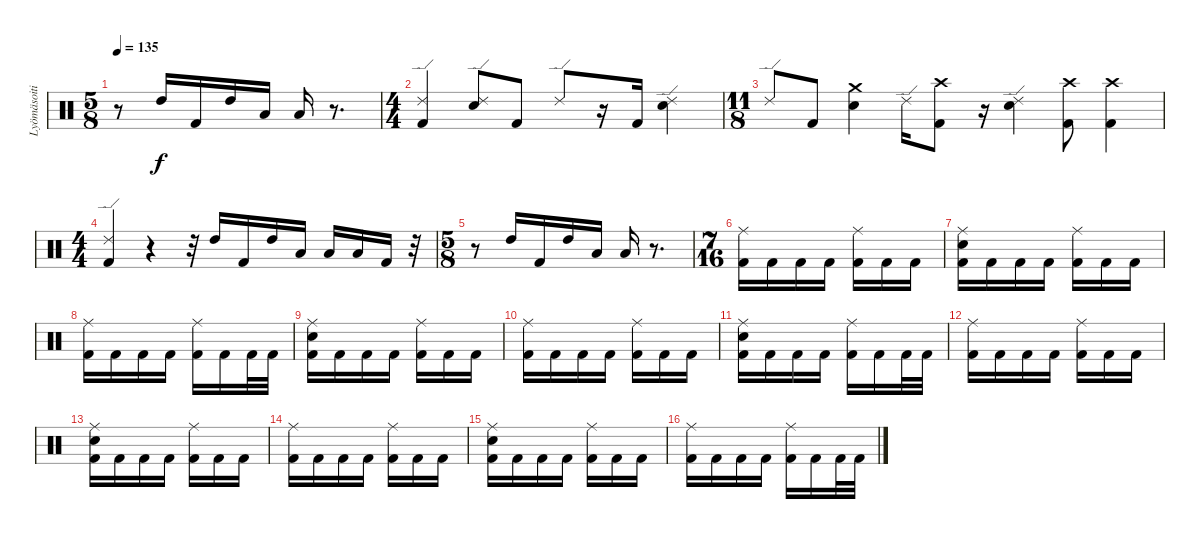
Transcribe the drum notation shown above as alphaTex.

\track ("Lyömäsoitin" "Lyömäsoiti") {instrument percussion}
\staff {score}
\articulation defaults
\ts (5 8)
\tempo 135
\clef neutral
\ks c
r.8{dy f} "High Tom (hit)".16 "Kick (hit) 2".16 "High Tom (hit)".16 "Low Tom (hit)".16 "Low Floor Tom (hit)".16 r.8{d} |
\ts (4 4)
("Ride (edge) 2" "Kick (hit) 2").4 ("Ride (edge) 2" "Electric Snare (hit)").8 "Kick (hit) 2".8 "Ride (edge) 2".8 r.16 "Kick (hit) 2".16 ("Ride (edge) 2" "Electric Snare (hit)").4 |
\ts (11 8)
"Ride (edge) 2".8 "Kick (hit) 2".8 ("Crash medium (hit)" "Electric Snare (hit)").4 "Ride (edge) 2".16 ("Crash high (hit)" "Kick (hit) 2").8 r.16 ("Electric Snare (hit)" "Ride (edge) 2").4 ("Crash high (hit)" "Kick (hit) 2").8 ("Crash high (hit)" "Kick (hit) 2").4 |
\ts (4 4)
("Ride (edge) 2" "Kick (hit) 2").4 r.4 r.32 "High Tom (hit)".16 "Kick (hit) 2".16 "High Tom (hit)".16 "Low Tom (hit)".16 "Low Tom (hit)".16 "Low Floor Tom (hit)".16 "Kick (hit) 2".16 r.32 |
\ts (5 8)
r.8 "High Tom (hit)".16 "Kick (hit) 2".16 "High Tom (hit)".16 "Low Tom (hit)".16 "Low Floor Tom (hit)".16 r.8{d} |
\ts (7 16)
("Ride (middle)" "Kick (hit) 2").16 "Kick (hit) 2".16 "Kick (hit) 2".16 "Kick (hit) 2".16 ("Ride (middle)" "Kick (hit) 2").16 "Kick (hit) 2".16 "Kick (hit) 2".16 |
("Ride (middle)" "Electric Snare (hit)" "Kick (hit) 2").16 "Kick (hit) 2".16 "Kick (hit) 2".16 "Kick (hit) 2".16 ("Ride (middle)" "Kick (hit) 2").16 "Kick (hit) 2".16 "Kick (hit) 2".16 |
("Ride (middle)" "Kick (hit) 2").16 "Kick (hit) 2".16 "Kick (hit) 2".16 "Kick (hit) 2".16 ("Ride (middle)" "Kick (hit) 2").16 "Kick (hit) 2".16 "Kick (hit) 2".32 "Kick (hit) 2".32 |
("Ride (middle)" "Electric Snare (hit)" "Kick (hit) 2").16 "Kick (hit) 2".16 "Kick (hit) 2".16 "Kick (hit) 2".16 ("Ride (middle)" "Kick (hit) 2").16 "Kick (hit) 2".16 "Kick (hit) 2".16 |
("Ride (middle)" "Kick (hit) 2").16 "Kick (hit) 2".16 "Kick (hit) 2".16 "Kick (hit) 2".16 ("Ride (middle)" "Kick (hit) 2").16 "Kick (hit) 2".16 "Kick (hit) 2".16 |
("Ride (middle)" "Electric Snare (hit)" "Kick (hit) 2").16 "Kick (hit) 2".16 "Kick (hit) 2".16 "Kick (hit) 2".16 ("Ride (middle)" "Kick (hit) 2").16 "Kick (hit) 2".16 "Kick (hit) 2".32 "Kick (hit) 2".32 |
("Ride (middle)" "Kick (hit) 2").16 "Kick (hit) 2".16 "Kick (hit) 2".16 "Kick (hit) 2".16 ("Ride (middle)" "Kick (hit) 2").16 "Kick (hit) 2".16 "Kick (hit) 2".16 |
("Ride (middle)" "Electric Snare (hit)" "Kick (hit) 2").16 "Kick (hit) 2".16 "Kick (hit) 2".16 "Kick (hit) 2".16 ("Ride (middle)" "Kick (hit) 2").16 "Kick (hit) 2".16 "Kick (hit) 2".16 |
("Ride (middle)" "Kick (hit) 2").16 "Kick (hit) 2".16 "Kick (hit) 2".16 "Kick (hit) 2".16 ("Ride (middle)" "Kick (hit) 2").16 "Kick (hit) 2".16 "Kick (hit) 2".16 |
("Ride (middle)" "Electric Snare (hit)" "Kick (hit) 2").16 "Kick (hit) 2".16 "Kick (hit) 2".16 "Kick (hit) 2".16 ("Ride (middle)" "Kick (hit) 2").16 "Kick (hit) 2".16 "Kick (hit) 2".16 |
("Ride (middle)" "Kick (hit) 2").16 "Kick (hit) 2".16 "Kick (hit) 2".16 "Kick (hit) 2".16 ("Ride (middle)" "Kick (hit) 2").16 "Kick (hit) 2".16 "Kick (hit) 2".32 "Kick (hit) 2".32
